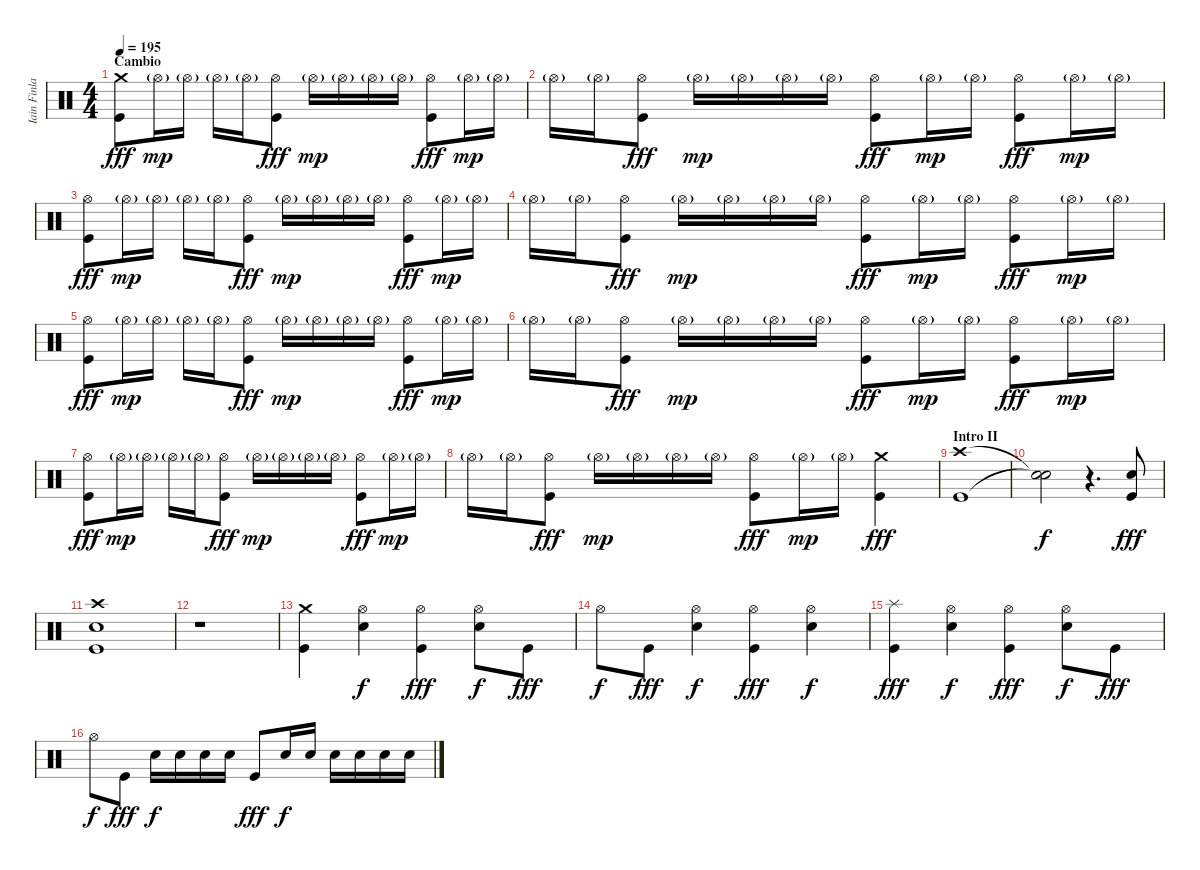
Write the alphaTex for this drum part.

\track ("Iain Finlay (Batería)" "Iain Finla") {instrument percussion}
\staff {score}
\articulation defaults
\ts (4 4)
\section ("" "Cambio")
\tempo 195
\clef neutral
\ks c
("Crash medium (hit)" "Kick (hit)").8{dy fff} "Hi-Hat (open)"{g}.16{dy mp} "Hi-Hat (open)"{g}.16 "Hi-Hat (open)"{g}.16 "Hi-Hat (open)"{g}.16 ("Hi-Hat (open)" "Kick (hit)").8{dy fff} "Hi-Hat (open)"{g}.16{dy mp} "Hi-Hat (open)"{g}.16 "Hi-Hat (open)"{g}.16 "Hi-Hat (open)"{g}.16 ("Hi-Hat (open)" "Kick (hit)").8{dy fff} "Hi-Hat (open)"{g}.16{dy mp} "Hi-Hat (open)"{g}.16 |
"Hi-Hat (open)"{g}.16 "Hi-Hat (open)"{g}.16 ("Hi-Hat (open)" "Kick (hit)").8{dy fff} "Hi-Hat (open)"{g}.16{dy mp} "Hi-Hat (open)"{g}.16 "Hi-Hat (open)"{g}.16 "Hi-Hat (open)"{g}.16 ("Hi-Hat (open)" "Kick (hit)").8{dy fff} "Hi-Hat (open)"{g}.16{dy mp} "Hi-Hat (open)"{g}.16 ("Hi-Hat (open)" "Kick (hit)").8{dy fff} "Hi-Hat (open)"{g}.16{dy mp} "Hi-Hat (open)"{g}.16 |
("Hi-Hat (open)" "Kick (hit)").8{dy fff} "Hi-Hat (open)"{g}.16{dy mp} "Hi-Hat (open)"{g}.16 "Hi-Hat (open)"{g}.16 "Hi-Hat (open)"{g}.16 ("Hi-Hat (open)" "Kick (hit)").8{dy fff} "Hi-Hat (open)"{g}.16{dy mp} "Hi-Hat (open)"{g}.16 "Hi-Hat (open)"{g}.16 "Hi-Hat (open)"{g}.16 ("Hi-Hat (open)" "Kick (hit)").8{dy fff} "Hi-Hat (open)"{g}.16{dy mp} "Hi-Hat (open)"{g}.16 |
"Hi-Hat (open)"{g}.16 "Hi-Hat (open)"{g}.16 ("Hi-Hat (open)" "Kick (hit)").8{dy fff} "Hi-Hat (open)"{g}.16{dy mp} "Hi-Hat (open)"{g}.16 "Hi-Hat (open)"{g}.16 "Hi-Hat (open)"{g}.16 ("Hi-Hat (open)" "Kick (hit)").8{dy fff} "Hi-Hat (open)"{g}.16{dy mp} "Hi-Hat (open)"{g}.16 ("Hi-Hat (open)" "Kick (hit)").8{dy fff} "Hi-Hat (open)"{g}.16{dy mp} "Hi-Hat (open)"{g}.16 |
("Hi-Hat (open)" "Kick (hit)").8{dy fff} "Hi-Hat (open)"{g}.16{dy mp} "Hi-Hat (open)"{g}.16 "Hi-Hat (open)"{g}.16 "Hi-Hat (open)"{g}.16 ("Hi-Hat (open)" "Kick (hit)").8{dy fff} "Hi-Hat (open)"{g}.16{dy mp} "Hi-Hat (open)"{g}.16 "Hi-Hat (open)"{g}.16 "Hi-Hat (open)"{g}.16 ("Hi-Hat (open)" "Kick (hit)").8{dy fff} "Hi-Hat (open)"{g}.16{dy mp} "Hi-Hat (open)"{g}.16 |
"Hi-Hat (open)"{g}.16 "Hi-Hat (open)"{g}.16 ("Hi-Hat (open)" "Kick (hit)").8{dy fff} "Hi-Hat (open)"{g}.16{dy mp} "Hi-Hat (open)"{g}.16 "Hi-Hat (open)"{g}.16 "Hi-Hat (open)"{g}.16 ("Hi-Hat (open)" "Kick (hit)").8{dy fff} "Hi-Hat (open)"{g}.16{dy mp} "Hi-Hat (open)"{g}.16 ("Hi-Hat (open)" "Kick (hit)").8{dy fff} "Hi-Hat (open)"{g}.16{dy mp} "Hi-Hat (open)"{g}.16 |
("Hi-Hat (open)" "Kick (hit)").8{dy fff} "Hi-Hat (open)"{g}.16{dy mp} "Hi-Hat (open)"{g}.16 "Hi-Hat (open)"{g}.16 "Hi-Hat (open)"{g}.16 ("Hi-Hat (open)" "Kick (hit)").8{dy fff} "Hi-Hat (open)"{g}.16{dy mp} "Hi-Hat (open)"{g}.16 "Hi-Hat (open)"{g}.16 "Hi-Hat (open)"{g}.16 ("Hi-Hat (open)" "Kick (hit)").8{dy fff} "Hi-Hat (open)"{g}.16{dy mp} "Hi-Hat (open)"{g}.16 |
"Hi-Hat (open)"{g}.16 "Hi-Hat (open)"{g}.16 ("Hi-Hat (open)" "Kick (hit)").8{dy fff} "Hi-Hat (open)"{g}.16{dy mp} "Hi-Hat (open)"{g}.16 "Hi-Hat (open)"{g}.16 "Hi-Hat (open)"{g}.16 ("Hi-Hat (open)" "Kick (hit)").8{dy fff} "Hi-Hat (open)"{g}.16{dy mp} "Hi-Hat (open)"{g}.16 ("Crash medium (hit)" "Kick (hit)").4{dy fff} |
\section ("" "Intro II")
("Crash high (hit)" "Kick (hit)").1 |
("Snare (hit)"{t} "Snare (hit)"{t}).2{dy f} r.4{d} ("Electric Snare (hit)" "Kick (hit)").8{dy fff} |
("Crash high (hit)" "Electric Snare (hit)" "Kick (hit)").1 |
r.1 |
("Crash medium (hit)" "Kick (hit)").4 ("Hi-Hat (open)" "Electric Snare (hit)").4{dy f} ("Hi-Hat (open)" "Kick (hit)").4{dy fff} ("Hi-Hat (open)" "Electric Snare (hit)").8{dy f} "Kick (hit)".8{dy fff} |
"Hi-Hat (open)".8{dy f} "Kick (hit)".8{dy fff} ("Hi-Hat (open)" "Electric Snare (hit)").4{dy f} ("Hi-Hat (open)" "Kick (hit)").4{dy fff} ("Hi-Hat (open)" "Electric Snare (hit)").4{dy f} |
("Splash (hit)" "Kick (hit)").4{dy fff} ("Hi-Hat (open)" "Electric Snare (hit)").4{dy f} ("Hi-Hat (open)" "Kick (hit)").4{dy fff} ("Hi-Hat (open)" "Electric Snare (hit)").8{dy f} "Kick (hit)".8{dy fff} |
"Hi-Hat (open)".8{dy f} "Kick (hit)".8{dy fff} "Electric Snare (hit)".16{dy f} "Electric Snare (hit)".16 "Electric Snare (hit)".16 "Electric Snare (hit)".16 "Kick (hit)".8{dy fff} "Electric Snare (hit)".16{dy f} "Electric Snare (hit)".16 "Electric Snare (hit)".16 "Electric Snare (hit)".16 "Electric Snare (hit)".16 "Electric Snare (hit)".16
